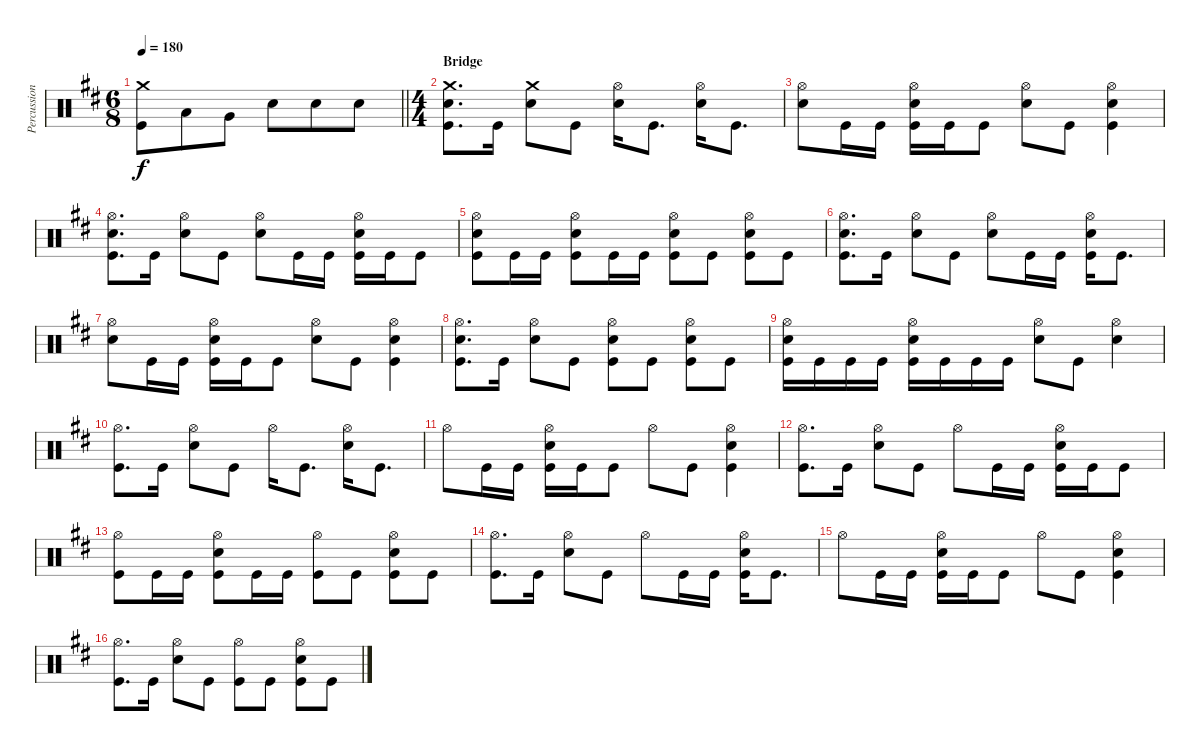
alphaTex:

\track ("Percussion" "Percussion") {instrument percussion}
\staff {score}
\articulation defaults
\ts (6 8)
\tempo 180
\clef neutral
\barLineRight lightlight
\ks d
("Crash medium (hit)" "Kick (hit)").8{dy f} "Low Tom (hit)".8 "Very Low Tom (hit)".8 "Electric Snare (hit)".8 "Electric Snare (hit)".8 "Electric Snare (hit)".8 |
\ts (4 4)
\section ("" "Bridge")
("Crash medium (hit)" "Electric Snare (hit)" "Kick (hit)").8{d} "Kick (hit)".16 ("Crash medium (hit)" "Electric Snare (hit)").8 "Kick (hit)".8 ("Hi-Hat (open)" "Electric Snare (hit)").16 "Kick (hit)".8{d} ("Hi-Hat (open)" "Electric Snare (hit)").16 "Kick (hit)".8{d} |
("Hi-Hat (open)" "Electric Snare (hit)").8 "Kick (hit)".16 "Kick (hit)".16 ("Hi-Hat (open)" "Electric Snare (hit)" "Kick (hit)").16 "Kick (hit)".16 "Kick (hit)".8 ("Hi-Hat (open)" "Electric Snare (hit)").8 "Kick (hit)".8 ("Hi-Hat (open)" "Electric Snare (hit)" "Kick (hit)").4 |
("Hi-Hat (open)" "Electric Snare (hit)" "Kick (hit)").8{d} "Kick (hit)".16 ("Hi-Hat (open)" "Electric Snare (hit)").8 "Kick (hit)".8 ("Hi-Hat (open)" "Electric Snare (hit)").8 "Kick (hit)".16 "Kick (hit)".16 ("Hi-Hat (open)" "Electric Snare (hit)" "Kick (hit)").16 "Kick (hit)".16 "Kick (hit)".8 |
("Hi-Hat (open)" "Electric Snare (hit)" "Kick (hit)").8 "Kick (hit)".16 "Kick (hit)".16 ("Hi-Hat (open)" "Electric Snare (hit)" "Kick (hit)").8 "Kick (hit)".16 "Kick (hit)".16 ("Hi-Hat (open)" "Electric Snare (hit)" "Kick (hit)").8 "Kick (hit)".8 ("Hi-Hat (open)" "Electric Snare (hit)" "Kick (hit)").8 "Kick (hit)".8 |
("Hi-Hat (open)" "Electric Snare (hit)" "Kick (hit)").8{d} "Kick (hit)".16 ("Hi-Hat (open)" "Electric Snare (hit)").8 "Kick (hit)".8 ("Hi-Hat (open)" "Electric Snare (hit)").8 "Kick (hit)".16 "Kick (hit)".16 ("Hi-Hat (open)" "Electric Snare (hit)" "Kick (hit)").16 "Kick (hit)".8{d} |
("Hi-Hat (open)" "Electric Snare (hit)").8 "Kick (hit)".16 "Kick (hit)".16 ("Hi-Hat (open)" "Electric Snare (hit)" "Kick (hit)").16 "Kick (hit)".16 "Kick (hit)".8 ("Hi-Hat (open)" "Electric Snare (hit)").8 "Kick (hit)".8 ("Hi-Hat (open)" "Electric Snare (hit)" "Kick (hit)").4 |
("Hi-Hat (open)" "Electric Snare (hit)" "Kick (hit)").8{d} "Kick (hit)".16 ("Hi-Hat (open)" "Electric Snare (hit)").8 "Kick (hit)".8 ("Hi-Hat (open)" "Electric Snare (hit)" "Kick (hit)").8 "Kick (hit)".8 ("Hi-Hat (open)" "Electric Snare (hit)" "Kick (hit)").8 "Kick (hit)".8 |
("Hi-Hat (open)" "Electric Snare (hit)" "Kick (hit)").16 "Kick (hit)".16 "Kick (hit)".16 "Kick (hit)".16 ("Hi-Hat (open)" "Electric Snare (hit)" "Kick (hit)").16 "Kick (hit)".16 "Kick (hit)".16 "Kick (hit)".16 ("Hi-Hat (open)" "Electric Snare (hit)").8 "Kick (hit)".8 ("Hi-Hat (open)" "Electric Snare (hit)").4 |
("Hi-Hat (open)" "Kick (hit)").8{d} "Kick (hit)".16 ("Hi-Hat (open)" "Electric Snare (hit)").8 "Kick (hit)".8 "Hi-Hat (open)".16 "Kick (hit)".8{d} ("Hi-Hat (open)" "Electric Snare (hit)").16 "Kick (hit)".8{d} |
"Hi-Hat (open)".8 "Kick (hit)".16 "Kick (hit)".16 ("Hi-Hat (open)" "Electric Snare (hit)" "Kick (hit)").16 "Kick (hit)".16 "Kick (hit)".8 "Hi-Hat (open)".8 "Kick (hit)".8 ("Hi-Hat (open)" "Electric Snare (hit)" "Kick (hit)").4 |
("Hi-Hat (open)" "Kick (hit)").8{d} "Kick (hit)".16 ("Hi-Hat (open)" "Electric Snare (hit)").8 "Kick (hit)".8 "Hi-Hat (open)".8 "Kick (hit)".16 "Kick (hit)".16 ("Hi-Hat (open)" "Electric Snare (hit)" "Kick (hit)").16 "Kick (hit)".16 "Kick (hit)".8 |
("Hi-Hat (open)" "Kick (hit)").8 "Kick (hit)".16 "Kick (hit)".16 ("Hi-Hat (open)" "Electric Snare (hit)" "Kick (hit)").8 "Kick (hit)".16 "Kick (hit)".16 ("Hi-Hat (open)" "Kick (hit)").8 "Kick (hit)".8 ("Hi-Hat (open)" "Electric Snare (hit)" "Kick (hit)").8 "Kick (hit)".8 |
("Hi-Hat (open)" "Kick (hit)").8{d} "Kick (hit)".16 ("Hi-Hat (open)" "Electric Snare (hit)").8 "Kick (hit)".8 "Hi-Hat (open)".8 "Kick (hit)".16 "Kick (hit)".16 ("Hi-Hat (open)" "Electric Snare (hit)" "Kick (hit)").16 "Kick (hit)".8{d} |
"Hi-Hat (open)".8 "Kick (hit)".16 "Kick (hit)".16 ("Hi-Hat (open)" "Electric Snare (hit)" "Kick (hit)").16 "Kick (hit)".16 "Kick (hit)".8 "Hi-Hat (open)".8 "Kick (hit)".8 ("Hi-Hat (open)" "Electric Snare (hit)" "Kick (hit)").4 |
("Hi-Hat (open)" "Kick (hit)").8{d} "Kick (hit)".16 ("Hi-Hat (open)" "Electric Snare (hit)").8 "Kick (hit)".8 ("Hi-Hat (open)" "Kick (hit)").8 "Kick (hit)".8 ("Hi-Hat (open)" "Electric Snare (hit)" "Kick (hit)").8 "Kick (hit)".8
